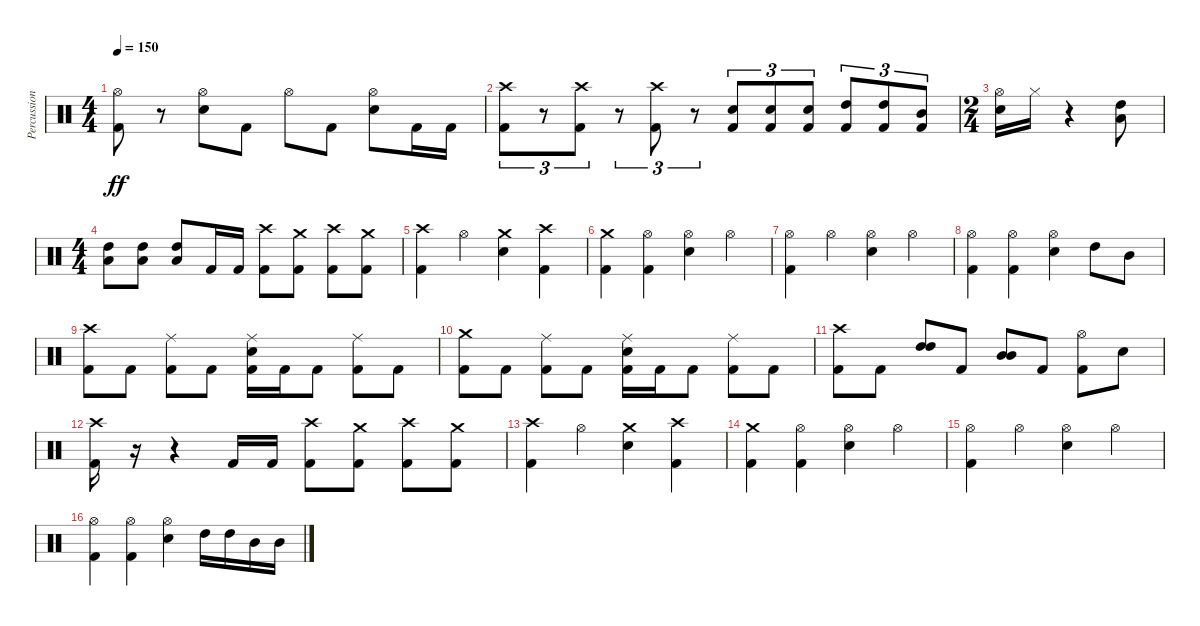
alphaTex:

\track ("Percussion" "Percussion") {instrument percussion}
\staff {score}
\articulation defaults
\ts (4 4)
\tempo 150
\clef neutral
\ks c
("Hi-Hat (open)" "Kick (hit) 2").8{dy ff} r.8 ("Hi-Hat (open)" "Snare (hit) 2").8 "Kick (hit) 2".8 "Hi-Hat (open)".8 "Kick (hit) 2".8 ("Hi-Hat (open)" "Snare (hit) 2").8 "Kick (hit) 2".16 "Kick (hit) 2".16 |
("Crash high (hit)" "Kick (hit) 2").8{tu (3 2)} r.8{tu (3 2)} ("Crash high (hit)" "Kick (hit) 2").8{tu (3 2)} r.8{tu (3 2)} ("Crash high (hit)" "Kick (hit) 2").8{tu (3 2)} r.8{tu (3 2)} ("Snare (hit) 2" "Kick (hit) 2").8{tu (3 2)} ("Snare (hit) 2" "Kick (hit) 2").8{tu (3 2)} ("Snare (hit) 2" "Kick (hit) 2").8{tu (3 2)} ("High Tom (hit)" "Kick (hit) 2").8{tu (3 2)} ("High Tom (hit)" "Kick (hit) 2").8{tu (3 2)} ("Mid Tom (hit)" "Kick (hit) 2").8{tu (3 2)} |
\ts (2 4)
("Hi-Hat (open)" "Snare (hit) 2").16 "Hi-Hat (closed)".16 r.4 ("High Tom (hit)" "Low Tom (hit)").8 |
\ts (4 4)
("High Tom (hit)" "Low Tom (hit)").8 ("High Tom (hit)" "Low Tom (hit)").8 ("High Tom (hit)" "Low Tom (hit)").8 "Kick (hit) 2".16 "Kick (hit) 2".16 ("Crash high (hit)" "Kick (hit) 2").8 ("Crash medium (hit)" "Kick (hit) 2").8 ("Crash high (hit)" "Kick (hit) 2").8 ("Crash medium (hit)" "Kick (hit) 2").8 |
("Crash high (hit)" "Kick (hit) 2").4 "Hi-Hat (open)".4 ("Crash medium (hit)" "Snare (hit) 2").4 ("Crash high (hit)" "Kick (hit) 2").4 |
("Crash medium (hit)" "Kick (hit) 2").4 ("Hi-Hat (open)" "Kick (hit) 2").4 ("Hi-Hat (open)" "Snare (hit) 2").4 "Hi-Hat (open)".4 |
("Hi-Hat (open)" "Kick (hit) 2").4 "Hi-Hat (open)".4 ("Hi-Hat (open)" "Snare (hit) 2").4 "Hi-Hat (open)".4 |
("Hi-Hat (open)" "Kick (hit) 2").4 ("Hi-Hat (open)" "Kick (hit) 2").4 ("Hi-Hat (open)" "Snare (hit) 2").4 "High Tom (hit)".8 "Mid Tom (hit)".8 |
("Crash high (hit)" "Kick (hit) 2").8 "Kick (hit) 2".8 ("Ride (middle)" "Kick (hit) 2").8 "Kick (hit) 2".8 ("Ride (middle)" "Snare (hit) 2" "Kick (hit) 2").16 "Kick (hit) 2".16 "Kick (hit) 2".8 ("Ride (middle)" "Kick (hit) 2").8 "Kick (hit) 2".8 |
("Crash medium (hit)" "Kick (hit) 2").8 "Kick (hit) 2".8 ("Ride (middle)" "Kick (hit) 2").8 "Kick (hit) 2".8 ("Ride (middle)" "Snare (hit) 2" "Kick (hit) 2").16 "Kick (hit) 2".16 "Kick (hit) 2".8 ("Ride (middle)" "Kick (hit) 2").8 "Kick (hit) 2".8 |
("Crash high (hit)" "Kick (hit) 2").8 "Kick (hit) 2".8 ("High Tom (hit)" "High Tom (hit)").8 "Kick (hit) 2".8 ("Mid Tom (hit)" "Mid Tom (hit)").8 "Kick (hit) 2".8 ("Hi-Hat (open)" "Kick (hit) 2").8 "Snare (hit) 2".8 |
("Crash high (hit)" "Kick (hit) 2").16 r.16 r.4 "Kick (hit) 2".16 "Kick (hit) 2".16 ("Crash high (hit)" "Kick (hit) 2").8 ("Crash medium (hit)" "Kick (hit) 2").8 ("Crash high (hit)" "Kick (hit) 2").8 ("Crash medium (hit)" "Kick (hit) 2").8 |
("Crash high (hit)" "Kick (hit) 2").4 "Hi-Hat (open)".4 ("Crash medium (hit)" "Snare (hit) 2").4 ("Crash high (hit)" "Kick (hit) 2").4 |
("Crash medium (hit)" "Kick (hit) 2").4 ("Hi-Hat (open)" "Kick (hit) 2").4 ("Hi-Hat (open)" "Snare (hit) 2").4 "Hi-Hat (open)".4 |
("Hi-Hat (open)" "Kick (hit) 2").4 "Hi-Hat (open)".4 ("Hi-Hat (open)" "Snare (hit) 2").4 "Hi-Hat (open)".4 |
("Hi-Hat (open)" "Kick (hit) 2").4 ("Hi-Hat (open)" "Kick (hit) 2").4 ("Hi-Hat (open)" "Snare (hit) 2").4 "High Tom (hit)".16 "High Tom (hit)".16 "Mid Tom (hit)".16 "Mid Tom (hit)".16
